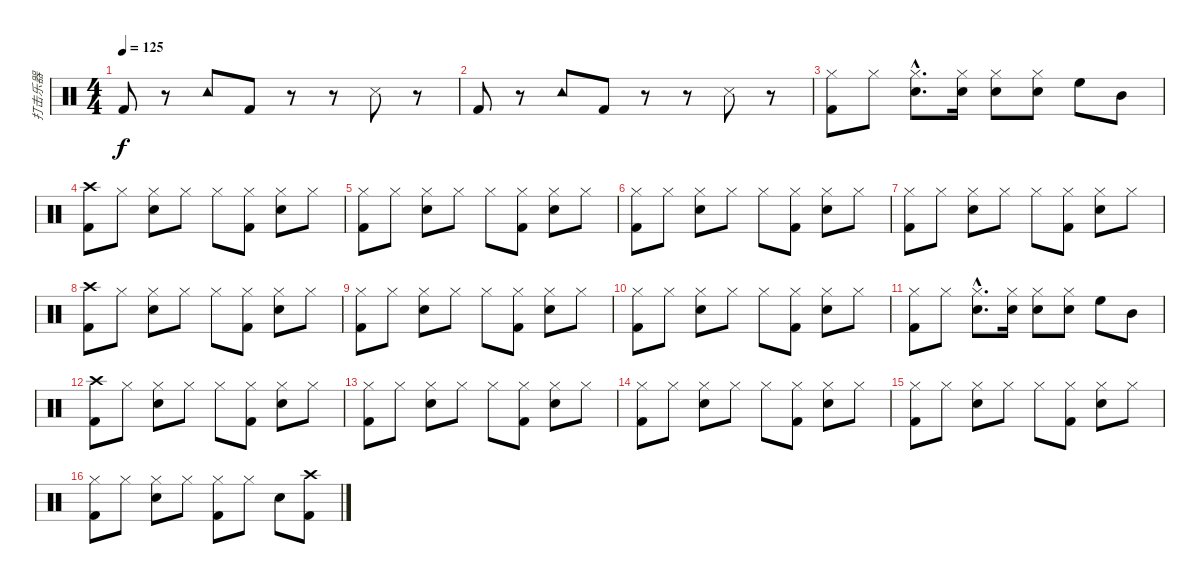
\track ("打击乐器" "打击乐器") {instrument percussion}
\staff {score}
\articulation defaults
\ts (4 4)
\tempo 125
\clef neutral
\ks c "Kick (hit) 2".8{dy f}
r.8 "Tambourine (hit)".8 "Kick (hit) 2".8 r.8 r.8 "Snare (side stick) 3".8 r.8 |
"Kick (hit) 2".8 r.8 "Tambourine (hit)".8 "Kick (hit) 2".8 r.8 r.8 "Snare (side stick) 3".8 r.8 |
("Hi-Hat (closed)" "Kick (hit) 2").8 "Hi-Hat (closed)".8 ("Hi-Hat (closed)"{hac} "Snare (hit) 2"{hac}).8{d} ("Hi-Hat (closed)" "Snare (hit) 2").16 ("Hi-Hat (closed)" "Snare (hit) 2").8 ("Hi-Hat (closed)" "Snare (hit) 2").8 "High Floor Tom (hit)".8 "Mid Tom (hit)".8 |
("Crash high (hit)" "Kick (hit) 2").8 "Hi-Hat (closed)".8 ("Hi-Hat (closed)" "Snare (hit) 2").8 "Hi-Hat (closed)".8 "Hi-Hat (closed)".8 ("Hi-Hat (closed)" "Kick (hit) 2").8 ("Hi-Hat (closed)" "Snare (hit) 2").8 "Hi-Hat (closed)".8 |
("Hi-Hat (closed)" "Kick (hit) 2").8 "Hi-Hat (closed)".8 ("Hi-Hat (closed)" "Snare (hit) 2").8 "Hi-Hat (closed)".8 "Hi-Hat (closed)".8 ("Hi-Hat (closed)" "Kick (hit) 2").8 ("Hi-Hat (closed)" "Snare (hit) 2").8 "Hi-Hat (closed)".8 |
("Hi-Hat (closed)" "Kick (hit) 2").8 "Hi-Hat (closed)".8 ("Hi-Hat (closed)" "Snare (hit) 2").8 "Hi-Hat (closed)".8 "Hi-Hat (closed)".8 ("Hi-Hat (closed)" "Kick (hit) 2").8 ("Hi-Hat (closed)" "Snare (hit) 2").8 "Hi-Hat (closed)".8 |
("Hi-Hat (closed)" "Kick (hit) 2").8 "Hi-Hat (closed)".8 ("Hi-Hat (closed)" "Snare (hit) 2").8 "Hi-Hat (closed)".8 "Hi-Hat (closed)".8 ("Hi-Hat (closed)" "Kick (hit) 2").8 ("Hi-Hat (closed)" "Snare (hit) 2").8 "Hi-Hat (closed)".8 |
("Crash high (hit)" "Kick (hit) 2").8 "Hi-Hat (closed)".8 ("Hi-Hat (closed)" "Snare (hit) 2").8 "Hi-Hat (closed)".8 "Hi-Hat (closed)".8 ("Hi-Hat (closed)" "Kick (hit) 2").8 ("Hi-Hat (closed)" "Snare (hit) 2").8 "Hi-Hat (closed)".8 |
("Hi-Hat (closed)" "Kick (hit) 2").8 "Hi-Hat (closed)".8 ("Hi-Hat (closed)" "Snare (hit) 2").8 "Hi-Hat (closed)".8 "Hi-Hat (closed)".8 ("Hi-Hat (closed)" "Kick (hit) 2").8 ("Hi-Hat (closed)" "Snare (hit) 2").8 "Hi-Hat (closed)".8 |
("Hi-Hat (closed)" "Kick (hit) 2").8 "Hi-Hat (closed)".8 ("Hi-Hat (closed)" "Snare (hit) 2").8 "Hi-Hat (closed)".8 "Hi-Hat (closed)".8 ("Hi-Hat (closed)" "Kick (hit) 2").8 ("Hi-Hat (closed)" "Snare (hit) 2").8 "Hi-Hat (closed)".8 |
("Hi-Hat (closed)" "Kick (hit) 2").8 "Hi-Hat (closed)".8 ("Hi-Hat (closed)"{hac} "Snare (hit) 2"{hac}).8{d} ("Hi-Hat (closed)" "Snare (hit) 2").16 ("Hi-Hat (closed)" "Snare (hit) 2").8 ("Hi-Hat (closed)" "Snare (hit) 2").8 "High Floor Tom (hit)".8 "Mid Tom (hit)".8 |
("Crash high (hit)" "Kick (hit) 2").8 "Hi-Hat (closed)".8 ("Hi-Hat (closed)" "Snare (hit) 2").8 "Hi-Hat (closed)".8 "Hi-Hat (closed)".8 ("Hi-Hat (closed)" "Kick (hit) 2").8 ("Hi-Hat (closed)" "Snare (hit) 2").8 "Hi-Hat (closed)".8 |
("Hi-Hat (closed)" "Kick (hit) 2").8 "Hi-Hat (closed)".8 ("Hi-Hat (closed)" "Snare (hit) 2").8 "Hi-Hat (closed)".8 "Hi-Hat (closed)".8 ("Hi-Hat (closed)" "Kick (hit) 2").8 ("Hi-Hat (closed)" "Snare (hit) 2").8 "Hi-Hat (closed)".8 |
("Hi-Hat (closed)" "Kick (hit) 2").8 "Hi-Hat (closed)".8 ("Hi-Hat (closed)" "Snare (hit) 2").8 "Hi-Hat (closed)".8 "Hi-Hat (closed)".8 ("Hi-Hat (closed)" "Kick (hit) 2").8 ("Hi-Hat (closed)" "Snare (hit) 2").8 "Hi-Hat (closed)".8 |
("Hi-Hat (closed)" "Kick (hit) 2").8 "Hi-Hat (closed)".8 ("Hi-Hat (closed)" "Snare (hit) 2").8 "Hi-Hat (closed)".8 "Hi-Hat (closed)".8 ("Hi-Hat (closed)" "Kick (hit) 2").8 ("Hi-Hat (closed)" "Snare (hit) 2").8 "Hi-Hat (closed)".8 |
("Hi-Hat (closed)" "Kick (hit) 2").8 "Hi-Hat (closed)".8 ("Hi-Hat (closed)" "Snare (hit) 2").8 "Hi-Hat (closed)".8 ("Hi-Hat (closed)" "Kick (hit) 2").8 "Hi-Hat (closed)".8 "Snare (hit) 2".8 ("Crash high (hit)" "Kick (hit) 2").8
